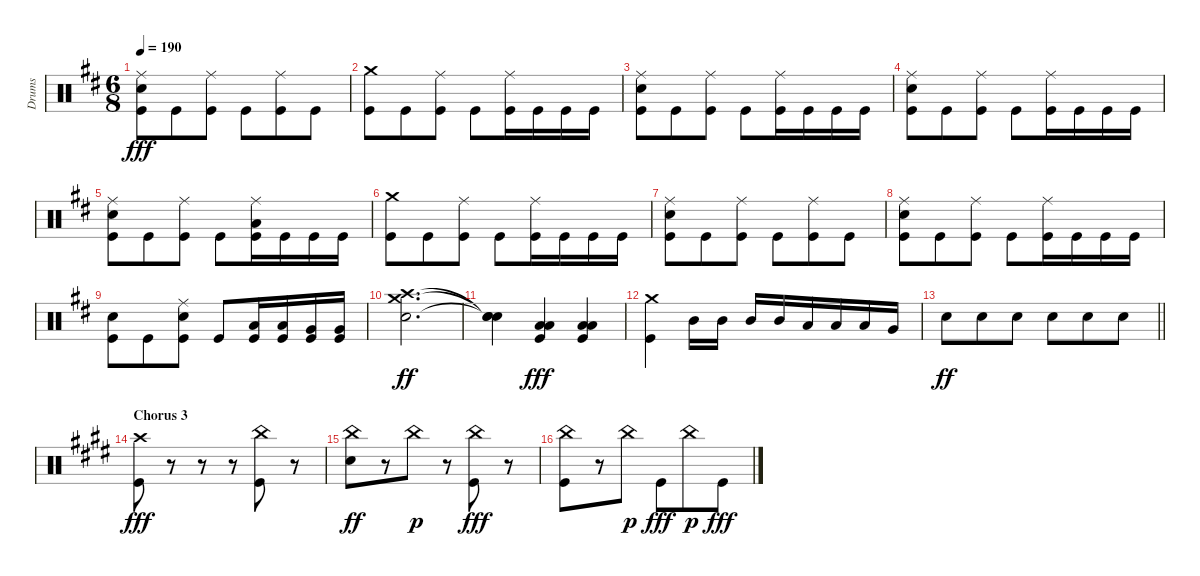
\track ("Drums" "Drums") {instrument percussion}
\staff {score}
\articulation defaults
\ts (6 8)
\tempo 190
\clef neutral
\ks bminor
("Ride (middle)" "Snare (hit) 2" "Kick (hit)").8{dy fff} "Kick (hit)".8 ("Ride (middle)" "Kick (hit)").8 "Kick (hit)".8 ("Ride (middle)" "Kick (hit)").8 "Kick (hit)".8 |
("Crash medium (hit)" "Kick (hit)").8 "Kick (hit)".8 ("Ride (middle)" "Kick (hit)").8 "Kick (hit)".8 ("Ride (middle)" "Kick (hit)").16 "Kick (hit)".16 "Kick (hit)".16 "Kick (hit)".16 |
("Ride (middle)" "Snare (hit) 2" "Kick (hit)").8 "Kick (hit)".8 ("Ride (middle)" "Kick (hit)").8 "Kick (hit)".8 ("Ride (middle)" "Kick (hit)").16 "Kick (hit)".16 "Kick (hit)".16 "Kick (hit)".16 |
("Ride (middle)" "Snare (hit) 2" "Kick (hit)").8 "Kick (hit)".8 ("Ride (middle)" "Kick (hit)").8 "Kick (hit)".8 ("Ride (middle)" "Kick (hit)").16 "Kick (hit)".16 "Kick (hit)".16 "Kick (hit)".16 |
("Ride (middle)" "Snare (hit) 2" "Kick (hit)").8 "Kick (hit)".8 ("Ride (middle)" "Kick (hit)").8 "Kick (hit)".8 ("Ride (middle)" "Low Tom (hit)" "Kick (hit)").16 "Kick (hit)".16 "Kick (hit)".16 "Kick (hit)".16 |
("Crash medium (hit)" "Kick (hit)").8 "Kick (hit)".8 ("Ride (middle)" "Kick (hit)").8 "Kick (hit)".8 ("Ride (middle)" "Kick (hit)").16 "Kick (hit)".16 "Kick (hit)".16 "Kick (hit)".16 |
("Ride (middle)" "Snare (hit) 2" "Kick (hit)").8 "Kick (hit)".8 ("Ride (middle)" "Kick (hit)").8 "Kick (hit)".8 ("Ride (middle)" "Kick (hit)").8 "Kick (hit)".8 |
("Ride (middle)" "Snare (hit) 2" "Kick (hit)").8 "Kick (hit)".8 ("Ride (middle)" "Kick (hit)").8 "Kick (hit)".8 ("Ride (middle)" "Kick (hit)").16 "Kick (hit)".16 "Kick (hit)".16 "Kick (hit)".16 |
("Snare (hit) 2" "Kick (hit)").8 "Kick (hit)".8 ("Ride (middle)" "Snare (hit) 2" "Kick (hit)").8 "Kick (hit)".8 ("Low Tom (hit)" "Kick (hit)").16 ("Low Tom (hit)" "Kick (hit)").16 ("Very Low Tom (hit)" "Kick (hit)").16 ("Very Low Tom (hit)" "Kick (hit)").16 |
("Crash high (hit)" "Crash medium (hit)" "Snare (hit) 2").2{d dy ff} |
("Snare (hit)"{t} "Snare (hit)"{t} "Snare (hit)"{t}).4 ("Low Tom (hit)" "Low Floor Tom (hit)" "Kick (hit)").4{dy fff} ("Low Tom (hit)" "Low Floor Tom (hit)" "Kick (hit)").4 |
("Crash medium (hit)" "Kick (hit)").4 "Mid Tom (hit)".16 "Mid Tom (hit)".16 "Mid Tom (hit)".16 "Mid Tom (hit)".16 "Low Tom (hit)".16 "Low Tom (hit)".16 "Low Tom (hit)".16 "Very Low Tom (hit)".16 |
\barLineRight lightlight "Snare (hit) 2".8{dy ff} "Snare (hit) 2".8 "Snare (hit) 2".8 "Snare (hit) 2".8 "Snare (hit) 2".8 "Snare (hit) 2".8
|
\section ("" "Chorus 3")
\ks c#minor
("Crash high (hit)" "Kick (hit)").8{dy fff} r.8 r.8 r.8 ("China (hit)" "Kick (hit)").8 r.8 |
("China (hit)" "Snare (hit) 2").8{dy ff} r.8 "China (hit)".8{dy p} r.8 ("China (hit)" "Kick (hit)").8{dy fff} r.8 |
("China (hit)" "Kick (hit)").8 r.8 "China (hit)".8{dy p} "Kick (hit)".8{dy fff} "China (hit)".8{dy p} "Kick (hit)".8{dy fff}
